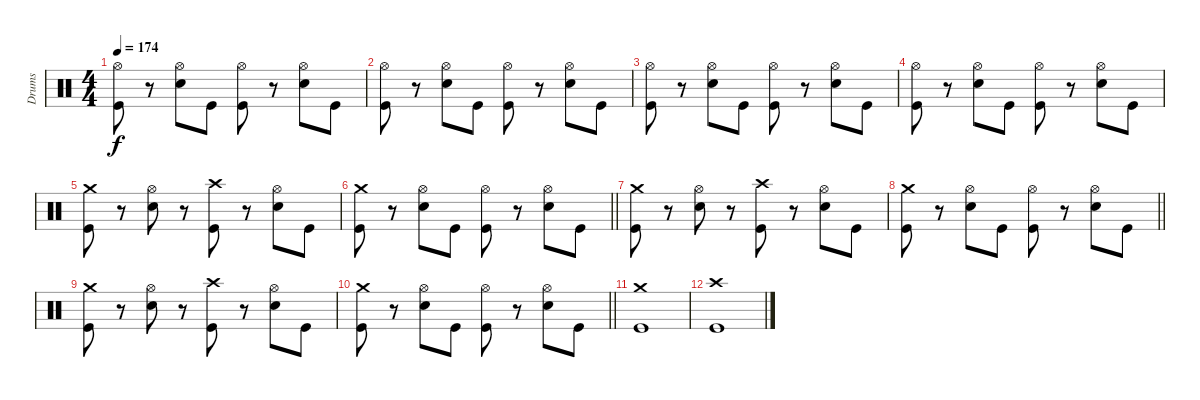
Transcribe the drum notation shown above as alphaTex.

\track ("Drums" "Drums") {instrument percussion}
\staff {score}
\articulation defaults
\ts (4 4)
\tempo 174
\clef neutral
\ks c
("Hi-Hat (open)" "Kick (hit)").8{dy f} r.8 ("Hi-Hat (open)" "Snare (hit) 2").8 "Kick (hit)".8 ("Hi-Hat (open)" "Kick (hit)").8 r.8 ("Hi-Hat (open)" "Snare (hit) 2").8 "Kick (hit)".8 |
("Hi-Hat (open)" "Kick (hit)").8 r.8 ("Hi-Hat (open)" "Snare (hit) 2").8 "Kick (hit)".8 ("Hi-Hat (open)" "Kick (hit)").8 r.8 ("Hi-Hat (open)" "Snare (hit) 2").8 "Kick (hit)".8 |
("Hi-Hat (open)" "Kick (hit)").8 r.8 ("Hi-Hat (open)" "Snare (hit) 2").8 "Kick (hit)".8 ("Hi-Hat (open)" "Kick (hit)").8 r.8 ("Hi-Hat (open)" "Snare (hit) 2").8 "Kick (hit)".8 |
("Hi-Hat (open)" "Kick (hit)").8 r.8 ("Hi-Hat (open)" "Snare (hit) 2").8 "Kick (hit)".8 ("Hi-Hat (open)" "Kick (hit)").8 r.8 ("Hi-Hat (open)" "Snare (hit) 2").8 "Kick (hit)".8 |
("Crash medium (hit)" "Kick (hit)").8 r.8 ("Hi-Hat (open)" "Snare (hit) 2").8 r.8 ("Crash high (hit)" "Kick (hit)").8 r.8 ("Hi-Hat (open)" "Snare (hit) 2").8 "Kick (hit)".8 |
\barLineRight lightlight
("Crash medium (hit)" "Kick (hit)").8 r.8 ("Hi-Hat (open)" "Snare (hit) 2").8 "Kick (hit)".8 ("Hi-Hat (open)" "Kick (hit)").8 r.8 ("Hi-Hat (open)" "Snare (hit) 2").8 "Kick (hit)".8 |
("Crash medium (hit)" "Kick (hit)").8 r.8 ("Hi-Hat (open)" "Snare (hit) 2").8 r.8 ("Crash high (hit)" "Kick (hit)").8 r.8 ("Hi-Hat (open)" "Snare (hit) 2").8 "Kick (hit)".8 |
\barLineRight lightlight
("Crash medium (hit)" "Kick (hit)").8 r.8 ("Hi-Hat (open)" "Snare (hit) 2").8 "Kick (hit)".8 ("Hi-Hat (open)" "Kick (hit)").8 r.8 ("Hi-Hat (open)" "Snare (hit) 2").8 "Kick (hit)".8 |
("Crash medium (hit)" "Kick (hit)").8 r.8 ("Hi-Hat (open)" "Snare (hit) 2").8 r.8 ("Crash high (hit)" "Kick (hit)").8 r.8 ("Hi-Hat (open)" "Snare (hit) 2").8 "Kick (hit)".8 |
\barLineRight lightlight
("Crash medium (hit)" "Kick (hit)").8 r.8 ("Hi-Hat (open)" "Snare (hit) 2").8 "Kick (hit)".8 ("Hi-Hat (open)" "Kick (hit)").8 r.8 ("Hi-Hat (open)" "Snare (hit) 2").8 "Kick (hit)".8 |
("Crash medium (hit)" "Kick (hit)").1 |
("Crash high (hit)" "Kick (hit)").1
